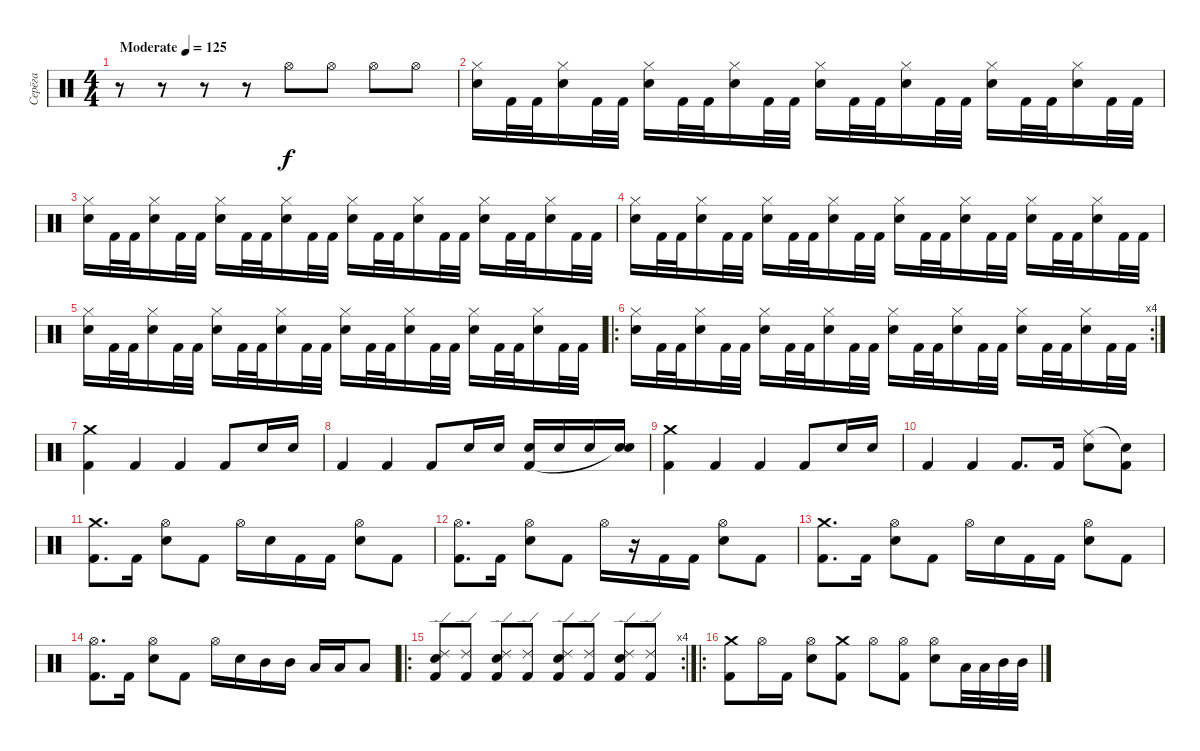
\track ("Серёга" "Серёга") {instrument percussion}
\staff {score}
\articulation defaults
\ts (4 4)
\tempo (125 "Moderate")
\clef neutral
\ks c
r.8{dy f} r.8 r.8 r.8 "Hi-Hat (open)".8 "Hi-Hat (open)".8 "Hi-Hat (open)".8 "Hi-Hat (open)".8 |
("Electric Snare (hit)" "Hi-Hat (closed)").16 "Kick (hit) 2".32 "Kick (hit) 2".32 ("Electric Snare (hit)" "Hi-Hat (closed)").16 "Kick (hit) 2".32 "Kick (hit) 2".32 ("Electric Snare (hit)" "Hi-Hat (closed)").16 "Kick (hit) 2".32 "Kick (hit) 2".32 ("Electric Snare (hit)" "Hi-Hat (closed)").16 "Kick (hit) 2".32 "Kick (hit) 2".32 ("Electric Snare (hit)" "Hi-Hat (closed)").16 "Kick (hit) 2".32 "Kick (hit) 2".32 ("Electric Snare (hit)" "Hi-Hat (closed)").16 "Kick (hit) 2".32 "Kick (hit) 2".32 ("Electric Snare (hit)" "Hi-Hat (closed)").16 "Kick (hit) 2".32 "Kick (hit) 2".32 ("Electric Snare (hit)" "Hi-Hat (closed)").16 "Kick (hit) 2".32 "Kick (hit) 2".32 |
("Electric Snare (hit)" "Hi-Hat (closed)").16 "Kick (hit) 2".32 "Kick (hit) 2".32 ("Electric Snare (hit)" "Hi-Hat (closed)").16 "Kick (hit) 2".32 "Kick (hit) 2".32 ("Electric Snare (hit)" "Hi-Hat (closed)").16 "Kick (hit) 2".32 "Kick (hit) 2".32 ("Electric Snare (hit)" "Hi-Hat (closed)").16 "Kick (hit) 2".32 "Kick (hit) 2".32 ("Electric Snare (hit)" "Hi-Hat (closed)").16 "Kick (hit) 2".32 "Kick (hit) 2".32 ("Electric Snare (hit)" "Hi-Hat (closed)").16 "Kick (hit) 2".32 "Kick (hit) 2".32 ("Electric Snare (hit)" "Hi-Hat (closed)").16 "Kick (hit) 2".32 "Kick (hit) 2".32 ("Electric Snare (hit)" "Hi-Hat (closed)").16 "Kick (hit) 2".32 "Kick (hit) 2".32 |
("Electric Snare (hit)" "Hi-Hat (closed)").16 "Kick (hit) 2".32 "Kick (hit) 2".32 ("Electric Snare (hit)" "Hi-Hat (closed)").16 "Kick (hit) 2".32 "Kick (hit) 2".32 ("Electric Snare (hit)" "Hi-Hat (closed)").16 "Kick (hit) 2".32 "Kick (hit) 2".32 ("Electric Snare (hit)" "Hi-Hat (closed)").16 "Kick (hit) 2".32 "Kick (hit) 2".32 ("Electric Snare (hit)" "Hi-Hat (closed)").16 "Kick (hit) 2".32 "Kick (hit) 2".32 ("Electric Snare (hit)" "Hi-Hat (closed)").16 "Kick (hit) 2".32 "Kick (hit) 2".32 ("Electric Snare (hit)" "Hi-Hat (closed)").16 "Kick (hit) 2".32 "Kick (hit) 2".32 ("Electric Snare (hit)" "Hi-Hat (closed)").16 "Kick (hit) 2".32 "Kick (hit) 2".32 |
("Electric Snare (hit)" "Hi-Hat (closed)").16 "Kick (hit) 2".32 "Kick (hit) 2".32 ("Electric Snare (hit)" "Hi-Hat (closed)").16 "Kick (hit) 2".32 "Kick (hit) 2".32 ("Electric Snare (hit)" "Hi-Hat (closed)").16 "Kick (hit) 2".32 "Kick (hit) 2".32 ("Electric Snare (hit)" "Hi-Hat (closed)").16 "Kick (hit) 2".32 "Kick (hit) 2".32 ("Electric Snare (hit)" "Hi-Hat (closed)").16 "Kick (hit) 2".32 "Kick (hit) 2".32 ("Electric Snare (hit)" "Hi-Hat (closed)").16 "Kick (hit) 2".32 "Kick (hit) 2".32 ("Electric Snare (hit)" "Hi-Hat (closed)").16 "Kick (hit) 2".32 "Kick (hit) 2".32 ("Electric Snare (hit)" "Hi-Hat (closed)").16 "Kick (hit) 2".32 "Kick (hit) 2".32 |
\ro
\rc 4
("Electric Snare (hit)" "Hi-Hat (closed)").16 "Kick (hit) 2".32 "Kick (hit) 2".32 ("Electric Snare (hit)" "Hi-Hat (closed)").16 "Kick (hit) 2".32 "Kick (hit) 2".32 ("Electric Snare (hit)" "Hi-Hat (closed)").16 "Kick (hit) 2".32 "Kick (hit) 2".32 ("Electric Snare (hit)" "Hi-Hat (closed)").16 "Kick (hit) 2".32 "Kick (hit) 2".32 ("Electric Snare (hit)" "Hi-Hat (closed)").16 "Kick (hit) 2".32 "Kick (hit) 2".32 ("Electric Snare (hit)" "Hi-Hat (closed)").16 "Kick (hit) 2".32 "Kick (hit) 2".32 ("Electric Snare (hit)" "Hi-Hat (closed)").16 "Kick (hit) 2".32 "Kick (hit) 2".32 ("Electric Snare (hit)" "Hi-Hat (closed)").16 "Kick (hit) 2".32 "Kick (hit) 2".32 |
("Crash medium (hit)" "Kick (hit) 2").4 "Kick (hit) 2".4 "Kick (hit) 2".4 "Kick (hit) 2".8 "Electric Snare (hit)".16 "Electric Snare (hit)".16 |
"Kick (hit) 2".4 "Kick (hit) 2".4 "Kick (hit) 2".8 "Electric Snare (hit)".16 "Electric Snare (hit)".16 ("Electric Snare (hit)" "Kick (hit) 2").16 "Electric Snare (hit)".16 "Electric Snare (hit)".16 ("Electric Snare (hit)" "Snare (hit)"{t}).16 |
("Crash medium (hit)" "Kick (hit) 2").4 "Kick (hit) 2".4 "Kick (hit) 2".4 "Kick (hit) 2".8 "Electric Snare (hit)".16 "Electric Snare (hit)".16 |
"Kick (hit) 2".4 "Kick (hit) 2".4 "Kick (hit) 2".8{d} "Kick (hit) 2".16 ("Ride (middle)" "Electric Snare (hit)").8 ("Snare (hit)"{t} "Kick (hit) 2").8 |
("Crash medium (hit)" "Kick (hit) 2").8{d} "Kick (hit) 2".16 ("Hi-Hat (open)" "Electric Snare (hit)").8 "Kick (hit) 2".8 "Hi-Hat (open)".16 "Electric Snare (hit)".16 "Kick (hit) 2".16 "Kick (hit) 2".16 ("Hi-Hat (open)" "Electric Snare (hit)").8 "Kick (hit) 2".8 |
("Hi-Hat (open)" "Kick (hit) 2").8{d} "Kick (hit) 2".16 ("Hi-Hat (open)" "Electric Snare (hit)").8 "Kick (hit) 2".8 "Hi-Hat (open)".16 r.16 "Kick (hit) 2".16 "Kick (hit) 2".16 ("Hi-Hat (open)" "Electric Snare (hit)").8 "Kick (hit) 2".8 |
("Crash medium (hit)" "Kick (hit) 2").8{d} "Kick (hit) 2".16 ("Hi-Hat (open)" "Electric Snare (hit)").8 "Kick (hit) 2".8 "Hi-Hat (open)".16 "Electric Snare (hit)".16 "Kick (hit) 2".16 "Kick (hit) 2".16 ("Hi-Hat (open)" "Electric Snare (hit)").8 "Kick (hit) 2".8 |
("Hi-Hat (open)" "Kick (hit) 2").8{d} "Kick (hit) 2".16 ("Hi-Hat (open)" "Electric Snare (hit)").8 "Kick (hit) 2".8 "Hi-Hat (open)".16 "Electric Snare (hit)".16 "Mid Tom (hit)".16 "Mid Tom (hit)".16 "Low Tom (hit)".16 "Low Tom (hit)".16 "Low Floor Tom (hit)".8 |
\ro
\rc 4
("Ride (edge) 2" "Electric Snare (hit)" "Kick (hit) 2").8 ("Ride (edge) 2" "Kick (hit) 2").8 ("Ride (edge) 2" "Electric Snare (hit)" "Kick (hit) 2").8 ("Ride (edge) 2" "Kick (hit) 2").8 ("Ride (edge) 2" "Electric Snare (hit)" "Kick (hit) 2").8 ("Ride (edge) 2" "Kick (hit) 2").8 ("Ride (edge) 2" "Electric Snare (hit)" "Kick (hit) 2").8 ("Ride (edge) 2" "Kick (hit) 2").8 |
\ro
("Crash medium (hit)" "Kick (hit) 2").8 "Hi-Hat (open)".16 "Kick (hit) 2".16 ("Hi-Hat (open)" "Electric Snare (hit)").8 ("Crash medium (hit)" "Kick (hit) 2").8 "Hi-Hat (open)".8 ("Hi-Hat (open)" "Kick (hit) 2").8 ("Hi-Hat (open)" "Electric Snare (hit)").8 "Low Tom (hit)".32 "Low Tom (hit)".32 "Mid Tom (hit)".32 "Mid Tom (hit)".32
